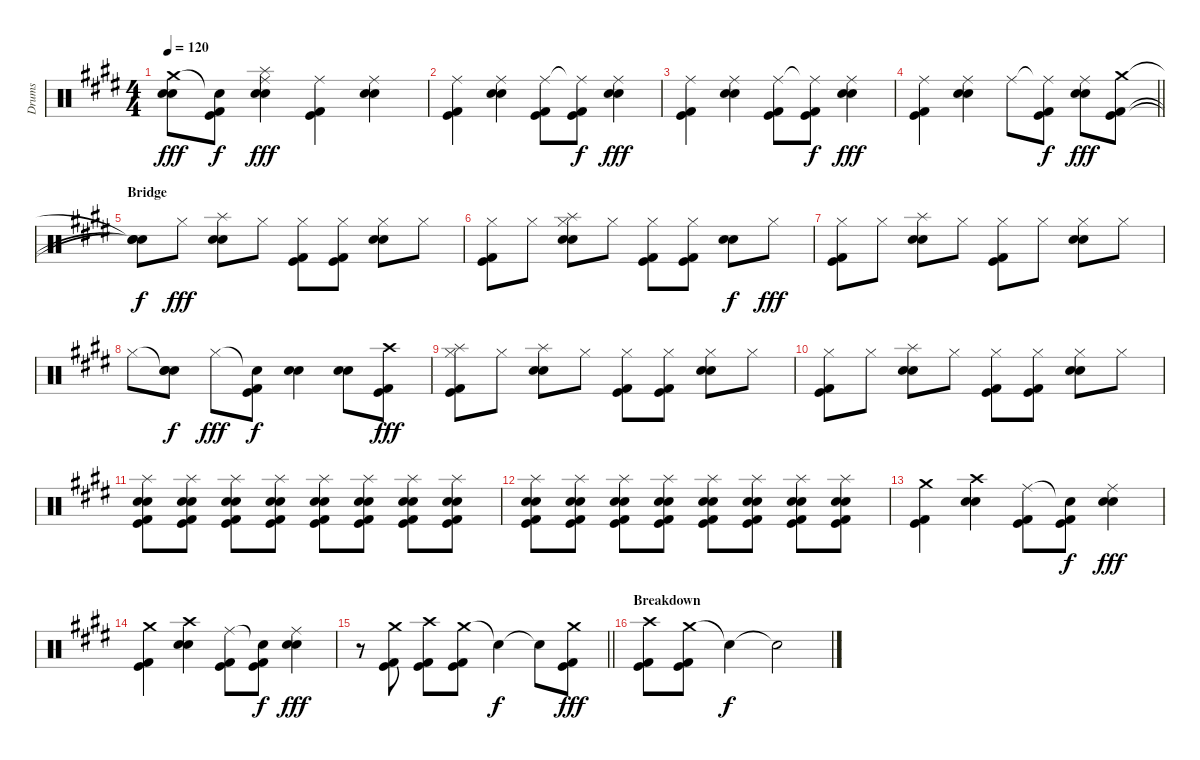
\track ("Drums" "Drums") {instrument percussion}
\staff {score}
\articulation defaults
\ts (4 4)
\tempo 120
\clef neutral
\ks e
("Crash medium (hit)" "Snare (hit)"{t} "Snare (hit)"{t}).8{dy fff} ("Snare (hit)"{t} "Kick (hit)" "Kick (hit) 2").8{dy f} ("Ride (middle)" "Electric Snare (hit)" "Snare (hit) 2" "Splash (hit)").4{dy fff} ("Ride (middle)" "Kick (hit)" "Kick (hit) 2").4 ("Ride (middle)" "Electric Snare (hit)" "Snare (hit) 2").4 |
("Ride (middle)" "Kick (hit)" "Kick (hit) 2").4 ("Ride (middle)" "Electric Snare (hit)" "Snare (hit) 2").4 ("Ride (middle)" "Kick (hit)" "Kick (hit) 2").8 ("Ride (middle)"{t} "Kick (hit)" "Kick (hit) 2").8{dy f} ("Ride (middle)" "Electric Snare (hit)" "Snare (hit) 2").4{dy fff} |
("Ride (middle)" "Kick (hit)" "Kick (hit) 2").4 ("Ride (middle)" "Electric Snare (hit)" "Snare (hit) 2").4 ("Ride (middle)" "Kick (hit)" "Kick (hit) 2").8 ("Ride (middle)"{t} "Kick (hit)" "Kick (hit) 2").8{dy f} ("Ride (middle)" "Electric Snare (hit)" "Snare (hit) 2").4{dy fff} |
\barLineRight lightlight
("Ride (middle)" "Kick (hit)" "Kick (hit) 2").4 ("Ride (middle)" "Electric Snare (hit)" "Snare (hit) 2").4 "Ride (middle)".8 ("Ride (middle)"{t} "Kick (hit)" "Kick (hit) 2").8{dy f} ("Ride (middle)" "Electric Snare (hit)" "Snare (hit) 2").8{dy fff} ("Crash medium (hit)" "Kick (hit)" "Kick (hit) 2").8 |
\section ("" "Bridge")
("Snare (hit)"{t} "Snare (hit)"{t} "Snare (hit)"{t}).8{dy f} "Hi-Hat (closed)".8{dy fff} ("Splash (hit)" "Electric Snare (hit)" "Snare (hit) 2").8 "Hi-Hat (closed)".8 ("Hi-Hat (closed)" "Kick (hit)" "Kick (hit) 2").8 ("Hi-Hat (closed)" "Kick (hit)" "Kick (hit) 2").8 ("Hi-Hat (closed)" "Electric Snare (hit)" "Snare (hit) 2").8 "Hi-Hat (closed)".8 |
("Hi-Hat (closed)" "Kick (hit)" "Kick (hit) 2").8 "Hi-Hat (closed)".8 ("Splash (hit)" "Electric Snare (hit)" "Snare (hit) 2" "Hi-Hat (closed)").8 "Hi-Hat (closed)".8 ("Hi-Hat (closed)" "Kick (hit)" "Kick (hit) 2").8 ("Hi-Hat (closed)" "Kick (hit)" "Kick (hit) 2").8 ("Electric Snare (hit)" "Snare (hit) 2").8{dy f} "Hi-Hat (closed)".8{dy fff} |
("Hi-Hat (closed)" "Kick (hit)" "Kick (hit) 2").8 "Hi-Hat (closed)".8 ("Splash (hit)" "Electric Snare (hit)" "Snare (hit) 2").8 "Hi-Hat (closed)".8 ("Hi-Hat (closed)" "Kick (hit)" "Kick (hit) 2").8 "Hi-Hat (closed)".8 ("Hi-Hat (closed)" "Electric Snare (hit)" "Snare (hit) 2").8 "Hi-Hat (closed)".8 |
"Hi-Hat (closed)".8 ("Snare (hit) 2"{t} "Electric Snare (hit)" "Snare (hit) 2").8{dy f} "Hi-Hat (closed)".8{dy fff} ("Snare (hit)"{t} "Kick (hit)" "Kick (hit) 2").8{dy f} ("Electric Snare (hit)" "Snare (hit) 2").4 ("Electric Snare (hit)" "Snare (hit) 2").8 ("Crash high (hit)" "Kick (hit)" "Kick (hit) 2").8{dy fff} |
("Hi-Hat (closed)" "Splash (hit)" "Kick (hit)" "Kick (hit) 2").8 "Hi-Hat (closed)".8 ("Splash (hit)" "Electric Snare (hit)" "Snare (hit) 2").8 "Hi-Hat (closed)".8 ("Hi-Hat (closed)" "Kick (hit)" "Kick (hit) 2").8 ("Hi-Hat (closed)" "Kick (hit)" "Kick (hit) 2").8 ("Hi-Hat (closed)" "Electric Snare (hit)" "Snare (hit) 2").8 "Hi-Hat (closed)".8 |
("Hi-Hat (closed)" "Kick (hit)" "Kick (hit) 2").8 "Hi-Hat (closed)".8 ("Splash (hit)" "Electric Snare (hit)" "Snare (hit) 2").8 "Hi-Hat (closed)".8 ("Hi-Hat (closed)" "Kick (hit)" "Kick (hit) 2").8 ("Hi-Hat (closed)" "Kick (hit)" "Kick (hit) 2").8 ("Hi-Hat (closed)" "Electric Snare (hit)" "Snare (hit) 2").8 "Hi-Hat (closed)".8 |
("Splash (hit)" "Electric Snare (hit)" "Snare (hit) 2" "Kick (hit)" "Kick (hit) 2").8 ("Splash (hit)" "Electric Snare (hit)" "Snare (hit) 2" "Kick (hit)" "Kick (hit) 2").8 ("Splash (hit)" "Electric Snare (hit)" "Snare (hit) 2" "Kick (hit)" "Kick (hit) 2").8 ("Splash (hit)" "Electric Snare (hit)" "Snare (hit) 2" "Kick (hit)" "Kick (hit) 2").8 ("Splash (hit)" "Electric Snare (hit)" "Snare (hit) 2" "Kick (hit)" "Kick (hit) 2").8 ("Splash (hit)" "Electric Snare (hit)" "Snare (hit) 2" "Kick (hit)" "Kick (hit) 2").8 ("Splash (hit)" "Electric Snare (hit)" "Snare (hit) 2" "Kick (hit)" "Kick (hit) 2").8 ("Splash (hit)" "Electric Snare (hit)" "Snare (hit) 2" "Kick (hit)" "Kick (hit) 2").8 |
("Splash (hit)" "Electric Snare (hit)" "Snare (hit) 2" "Kick (hit)" "Kick (hit) 2").8 ("Splash (hit)" "Electric Snare (hit)" "Snare (hit) 2" "Kick (hit)" "Kick (hit) 2").8 ("Splash (hit)" "Electric Snare (hit)" "Snare (hit) 2" "Kick (hit)" "Kick (hit) 2").8 ("Splash (hit)" "Electric Snare (hit)" "Snare (hit) 2" "Kick (hit)" "Kick (hit) 2").8 ("Splash (hit)" "Electric Snare (hit)" "Snare (hit) 2" "Kick (hit)" "Kick (hit) 2").8 ("Splash (hit)" "Electric Snare (hit)" "Snare (hit) 2" "Kick (hit)" "Kick (hit) 2").8 ("Splash (hit)" "Electric Snare (hit)" "Snare (hit) 2" "Kick (hit)" "Kick (hit) 2").8 ("Splash (hit)" "Electric Snare (hit)" "Snare (hit) 2" "Kick (hit)" "Kick (hit) 2").8 |
("Crash medium (hit)" "Kick (hit)" "Kick (hit) 2").4 ("Crash high (hit)" "Electric Snare (hit)" "Snare (hit) 2").4 ("Ride (middle)" "Kick (hit)" "Kick (hit) 2").8 ("Snare (hit)"{t} "Kick (hit)" "Kick (hit) 2").8{dy f} ("Ride (middle)" "Electric Snare (hit)" "Snare (hit) 2").4{dy fff} |
("Crash medium (hit)" "Kick (hit)" "Kick (hit) 2").4 ("Crash high (hit)" "Electric Snare (hit)" "Snare (hit) 2").4 ("Ride (middle)" "Kick (hit)" "Kick (hit) 2").8 ("Snare (hit)"{t} "Kick (hit)" "Kick (hit) 2").8{dy f} ("Ride (middle)" "Electric Snare (hit)" "Snare (hit) 2").4{dy fff} |
\barLineRight lightlight
r.8 ("Crash medium (hit)" "Kick (hit)" "Kick (hit) 2").8 ("Crash high (hit)" "Kick (hit)" "Kick (hit) 2").8 ("Crash medium (hit)" "Kick (hit)" "Kick (hit) 2").8 "Snare (hit)"{t}.4{dy f} "Snare (hit)"{t}.8 ("Crash medium (hit)" "Kick (hit)" "Kick (hit) 2").8{dy fff} |
\section ("" "Breakdown")
("Crash high (hit)" "Kick (hit)" "Kick (hit) 2").8 ("Crash medium (hit)" "Kick (hit)" "Kick (hit) 2").8 "Snare (hit)"{t}.4{dy f} "Snare (hit)"{t}.2
